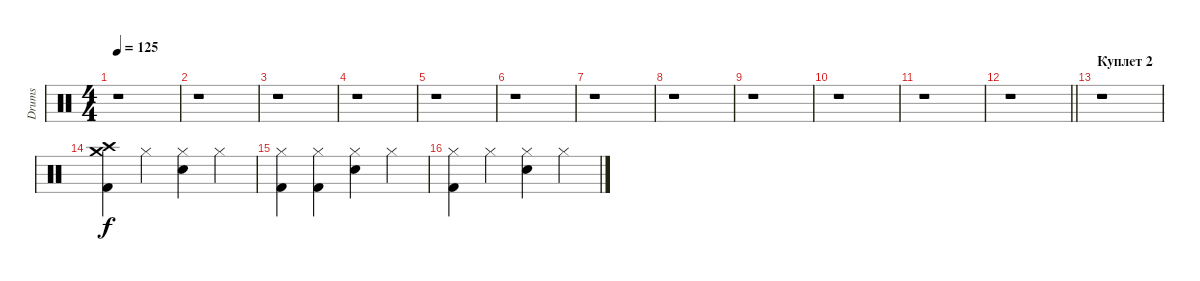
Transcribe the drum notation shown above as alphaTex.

\track ("Drums" "Drums") {instrument percussion}
\staff {score}
\articulation defaults
\ts (4 4)
\tempo 125
\clef neutral
\ks c
r.1{dy f} |
r.1 |
r.1 |
r.1 |
r.1 |
r.1 |
r.1 |
r.1 |
r.1 |
r.1 |
r.1 |
\barLineRight lightlight
r.1 |
\section ("" "Куплет 2")
r.1 |
("Crash high (hit)" "Crash medium (hit)" "Kick (hit) 2").4 "Hi-Hat (closed)".4 ("Hi-Hat (closed)" "Snare (hit) 2").4 "Hi-Hat (closed)".4 |
("Hi-Hat (closed)" "Kick (hit) 2").4 ("Hi-Hat (closed)" "Kick (hit) 2").4 ("Hi-Hat (closed)" "Snare (hit) 2").4 "Hi-Hat (closed)".4 |
("Hi-Hat (closed)" "Kick (hit) 2").4 "Hi-Hat (closed)".4 ("Hi-Hat (closed)" "Snare (hit) 2").4 "Hi-Hat (closed)".4
